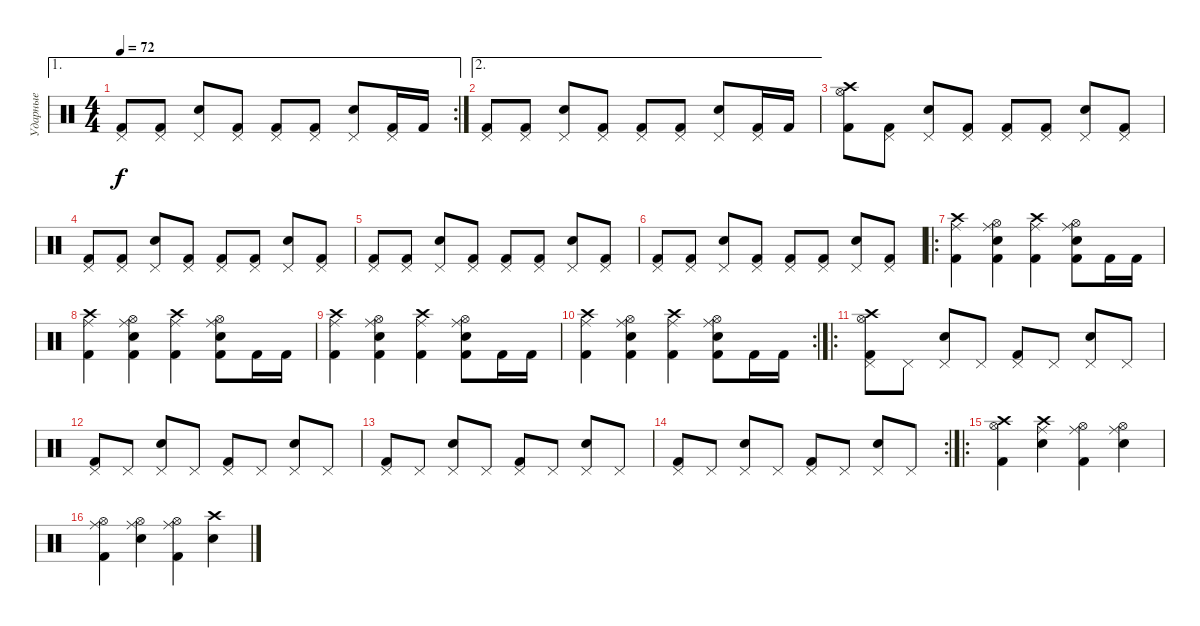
\track ("Ударные" "Ударные") {instrument percussion}
\staff {score}
\articulation defaults
\ae 1
\rc 2
\ts (4 4)
\tempo 72
\clef neutral
\ks c
("Pedal Hi-Hat (hit)" "Kick (hit) 2").8{dy f} ("Pedal Hi-Hat (hit)" "Kick (hit) 2").8 ("Pedal Hi-Hat (hit)" "Snare (hit) 2").8 ("Pedal Hi-Hat (hit)" "Kick (hit) 2").8 ("Pedal Hi-Hat (hit)" "Kick (hit) 2").8 ("Pedal Hi-Hat (hit)" "Kick (hit) 2").8 ("Pedal Hi-Hat (hit)" "Snare (hit) 2").8 ("Pedal Hi-Hat (hit)" "Kick (hit) 2").16 "Kick (hit) 2".16 |
\ae 2
("Pedal Hi-Hat (hit)" "Kick (hit) 2").8 ("Pedal Hi-Hat (hit)" "Kick (hit) 2").8 ("Pedal Hi-Hat (hit)" "Snare (hit) 2").8 ("Pedal Hi-Hat (hit)" "Kick (hit) 2").8 ("Pedal Hi-Hat (hit)" "Kick (hit) 2").8 ("Pedal Hi-Hat (hit)" "Kick (hit) 2").8 ("Pedal Hi-Hat (hit)" "Snare (hit) 2").8 ("Pedal Hi-Hat (hit)" "Kick (hit) 2").16 "Kick (hit) 2".16 |
("Crash high (hit)" "Hi-Hat (open)" "Kick (hit) 2").8 ("Pedal Hi-Hat (hit)" "Kick (hit) 2").8 ("Pedal Hi-Hat (hit)" "Snare (hit) 2").8 ("Pedal Hi-Hat (hit)" "Kick (hit) 2").8 ("Pedal Hi-Hat (hit)" "Kick (hit) 2").8 ("Pedal Hi-Hat (hit)" "Kick (hit) 2").8 ("Pedal Hi-Hat (hit)" "Snare (hit) 2").8 ("Pedal Hi-Hat (hit)" "Kick (hit) 2").8 |
("Pedal Hi-Hat (hit)" "Kick (hit) 2").8 ("Pedal Hi-Hat (hit)" "Kick (hit) 2").8 ("Pedal Hi-Hat (hit)" "Snare (hit) 2").8 ("Pedal Hi-Hat (hit)" "Kick (hit) 2").8 ("Pedal Hi-Hat (hit)" "Kick (hit) 2").8 ("Pedal Hi-Hat (hit)" "Kick (hit) 2").8 ("Pedal Hi-Hat (hit)" "Snare (hit) 2").8 ("Pedal Hi-Hat (hit)" "Kick (hit) 2").8 |
("Pedal Hi-Hat (hit)" "Kick (hit) 2").8 ("Pedal Hi-Hat (hit)" "Kick (hit) 2").8 ("Pedal Hi-Hat (hit)" "Snare (hit) 2").8 ("Pedal Hi-Hat (hit)" "Kick (hit) 2").8 ("Pedal Hi-Hat (hit)" "Kick (hit) 2").8 ("Pedal Hi-Hat (hit)" "Kick (hit) 2").8 ("Pedal Hi-Hat (hit)" "Snare (hit) 2").8 ("Pedal Hi-Hat (hit)" "Kick (hit) 2").8 |
("Pedal Hi-Hat (hit)" "Kick (hit) 2").8 ("Pedal Hi-Hat (hit)" "Kick (hit) 2").8 ("Pedal Hi-Hat (hit)" "Snare (hit) 2").8 ("Pedal Hi-Hat (hit)" "Kick (hit) 2").8 ("Pedal Hi-Hat (hit)" "Kick (hit) 2").8 ("Pedal Hi-Hat (hit)" "Kick (hit) 2").8 ("Pedal Hi-Hat (hit)" "Snare (hit) 2").8 ("Pedal Hi-Hat (hit)" "Kick (hit) 2").8 |
\ro
("Ride (middle)" "Crash high (hit)" "Kick (hit) 2").4 ("Ride (middle)" "Hi-Hat (open)" "Snare (hit) 2" "Kick (hit) 2").4 ("Ride (middle)" "Crash high (hit)" "Kick (hit) 2").4 ("Ride (middle)" "Hi-Hat (open)" "Snare (hit) 2" "Kick (hit) 2").8 "Kick (hit) 2".16 "Kick (hit) 2".16 |
("Ride (middle)" "Crash high (hit)" "Kick (hit) 2").4 ("Ride (middle)" "Hi-Hat (open)" "Snare (hit) 2" "Kick (hit) 2").4 ("Ride (middle)" "Crash high (hit)" "Kick (hit) 2").4 ("Ride (middle)" "Hi-Hat (open)" "Snare (hit) 2" "Kick (hit) 2").8 "Kick (hit) 2".16 "Kick (hit) 2".16 |
("Ride (middle)" "Crash high (hit)" "Kick (hit) 2").4 ("Ride (middle)" "Hi-Hat (open)" "Snare (hit) 2" "Kick (hit) 2").4 ("Ride (middle)" "Crash high (hit)" "Kick (hit) 2").4 ("Ride (middle)" "Hi-Hat (open)" "Snare (hit) 2" "Kick (hit) 2").8 "Kick (hit) 2".16 "Kick (hit) 2".16 |
\rc 2
("Ride (middle)" "Crash high (hit)" "Kick (hit) 2").4 ("Ride (middle)" "Hi-Hat (open)" "Snare (hit) 2" "Kick (hit) 2").4 ("Ride (middle)" "Crash high (hit)" "Kick (hit) 2").4 ("Ride (middle)" "Hi-Hat (open)" "Snare (hit) 2" "Kick (hit) 2").8 "Kick (hit) 2".16 "Kick (hit) 2".16 |
\ro
("Hi-Hat (open)" "Crash high (hit)" "Pedal Hi-Hat (hit)" "Kick (hit) 2").8 "Pedal Hi-Hat (hit)".8 ("Pedal Hi-Hat (hit)" "Snare (hit) 2").8 "Pedal Hi-Hat (hit)".8 ("Pedal Hi-Hat (hit)" "Kick (hit) 2").8 "Pedal Hi-Hat (hit)".8 ("Pedal Hi-Hat (hit)" "Snare (hit) 2").8 "Pedal Hi-Hat (hit)".8 |
("Pedal Hi-Hat (hit)" "Kick (hit) 2").8 "Pedal Hi-Hat (hit)".8 ("Pedal Hi-Hat (hit)" "Snare (hit) 2").8 "Pedal Hi-Hat (hit)".8 ("Pedal Hi-Hat (hit)" "Kick (hit) 2").8 "Pedal Hi-Hat (hit)".8 ("Pedal Hi-Hat (hit)" "Snare (hit) 2").8 "Pedal Hi-Hat (hit)".8 |
("Pedal Hi-Hat (hit)" "Kick (hit) 2").8 "Pedal Hi-Hat (hit)".8 ("Pedal Hi-Hat (hit)" "Snare (hit) 2").8 "Pedal Hi-Hat (hit)".8 ("Pedal Hi-Hat (hit)" "Kick (hit) 2").8 "Pedal Hi-Hat (hit)".8 ("Pedal Hi-Hat (hit)" "Snare (hit) 2").8 "Pedal Hi-Hat (hit)".8 |
\rc 2
("Pedal Hi-Hat (hit)" "Kick (hit) 2").8 "Pedal Hi-Hat (hit)".8 ("Pedal Hi-Hat (hit)" "Snare (hit) 2").8 "Pedal Hi-Hat (hit)".8 ("Pedal Hi-Hat (hit)" "Kick (hit) 2").8 "Pedal Hi-Hat (hit)".8 ("Pedal Hi-Hat (hit)" "Snare (hit) 2").8 "Pedal Hi-Hat (hit)".8 |
\ro
("Crash high (hit)" "Hi-Hat (open)" "Kick (hit) 2").4 ("Crash high (hit)" "Ride (middle)" "Snare (hit) 2").4 ("Hi-Hat (open)" "Ride (middle)" "Kick (hit) 2").4 ("Hi-Hat (open)" "Ride (middle)" "Snare (hit) 2").4 |
("Hi-Hat (open)" "Ride (middle)" "Kick (hit) 2").4 ("Hi-Hat (open)" "Ride (middle)" "Snare (hit) 2").4 ("Hi-Hat (open)" "Ride (middle)" "Kick (hit) 2").4 ("Crash high (hit)" "Snare (hit) 2").4
